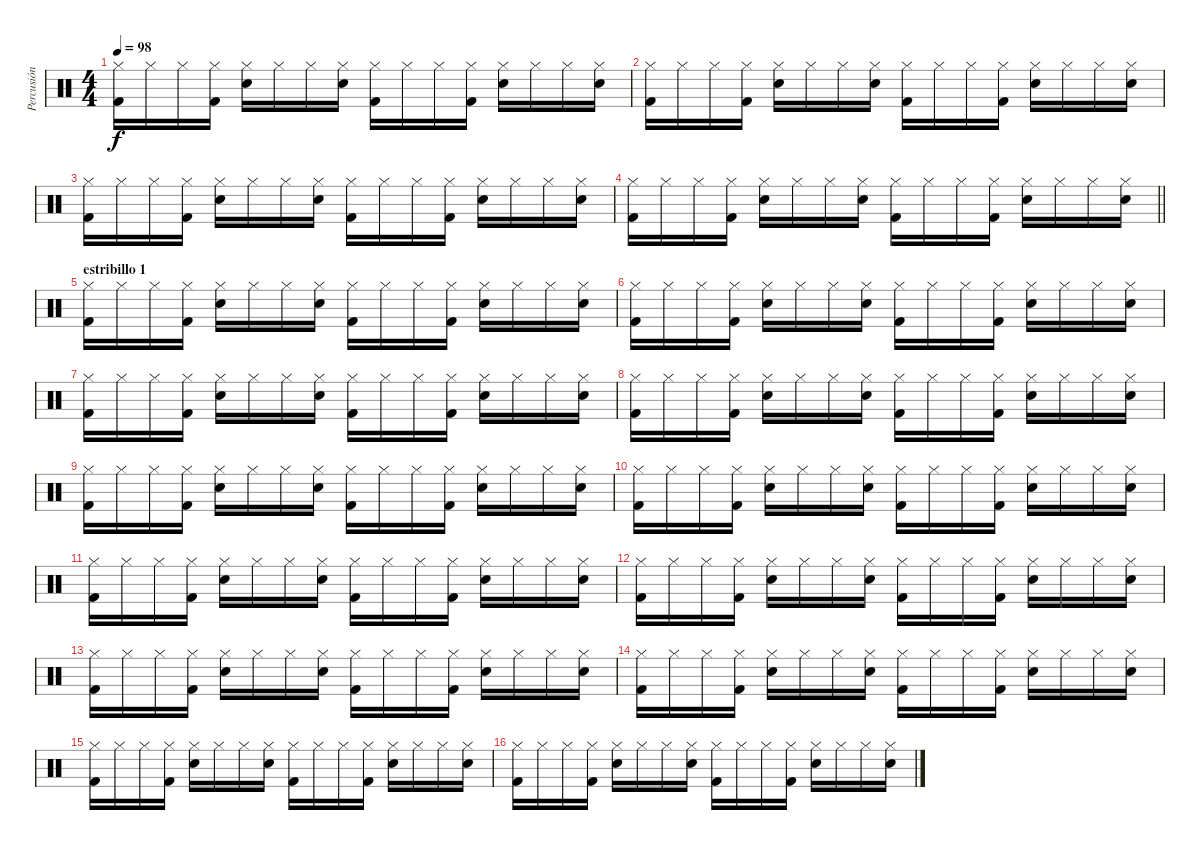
\track ("Percusión" "Percusión") {instrument percussion}
\staff {score}
\articulation defaults
\ts (4 4)
\tempo 98
\clef neutral
\ks c
("Hi-Hat (closed)" "Kick (hit) 2").16{dy f} "Hi-Hat (closed)".16 "Hi-Hat (closed)".16 ("Hi-Hat (closed)" "Kick (hit) 2").16 ("Hi-Hat (closed)" "Snare (hit) 2").16 "Hi-Hat (closed)".16 "Hi-Hat (closed)".16 ("Hi-Hat (closed)" "Snare (hit) 2").16 ("Hi-Hat (closed)" "Kick (hit) 2").16 "Hi-Hat (closed)".16 "Hi-Hat (closed)".16 ("Hi-Hat (closed)" "Kick (hit) 2").16 ("Hi-Hat (closed)" "Snare (hit) 2").16 "Hi-Hat (closed)".16 "Hi-Hat (closed)".16 ("Hi-Hat (closed)" "Snare (hit) 2").16 |
("Hi-Hat (closed)" "Kick (hit) 2").16 "Hi-Hat (closed)".16 "Hi-Hat (closed)".16 ("Hi-Hat (closed)" "Kick (hit) 2").16 ("Hi-Hat (closed)" "Snare (hit) 2").16 "Hi-Hat (closed)".16 "Hi-Hat (closed)".16 ("Hi-Hat (closed)" "Snare (hit) 2").16 ("Hi-Hat (closed)" "Kick (hit) 2").16 "Hi-Hat (closed)".16 "Hi-Hat (closed)".16 ("Hi-Hat (closed)" "Kick (hit) 2").16 ("Hi-Hat (closed)" "Snare (hit) 2").16 "Hi-Hat (closed)".16 "Hi-Hat (closed)".16 ("Hi-Hat (closed)" "Snare (hit) 2").16 |
("Hi-Hat (closed)" "Kick (hit) 2").16 "Hi-Hat (closed)".16 "Hi-Hat (closed)".16 ("Hi-Hat (closed)" "Kick (hit) 2").16 ("Hi-Hat (closed)" "Snare (hit) 2").16 "Hi-Hat (closed)".16 "Hi-Hat (closed)".16 ("Hi-Hat (closed)" "Snare (hit) 2").16 ("Hi-Hat (closed)" "Kick (hit) 2").16 "Hi-Hat (closed)".16 "Hi-Hat (closed)".16 ("Hi-Hat (closed)" "Kick (hit) 2").16 ("Hi-Hat (closed)" "Snare (hit) 2").16 "Hi-Hat (closed)".16 "Hi-Hat (closed)".16 ("Hi-Hat (closed)" "Snare (hit) 2").16 |
\barLineRight lightlight
("Hi-Hat (closed)" "Kick (hit) 2").16 "Hi-Hat (closed)".16 "Hi-Hat (closed)".16 ("Hi-Hat (closed)" "Kick (hit) 2").16 ("Hi-Hat (closed)" "Snare (hit) 2").16 "Hi-Hat (closed)".16 "Hi-Hat (closed)".16 ("Hi-Hat (closed)" "Snare (hit) 2").16 ("Hi-Hat (closed)" "Kick (hit) 2").16 "Hi-Hat (closed)".16 "Hi-Hat (closed)".16 ("Hi-Hat (closed)" "Kick (hit) 2").16 ("Hi-Hat (closed)" "Snare (hit) 2").16 "Hi-Hat (closed)".16 "Hi-Hat (closed)".16 ("Hi-Hat (closed)" "Snare (hit) 2").16 |
\section ("" "estribillo 1")
("Hi-Hat (closed)" "Kick (hit) 2").16 "Hi-Hat (closed)".16 "Hi-Hat (closed)".16 ("Hi-Hat (closed)" "Kick (hit) 2").16 ("Hi-Hat (closed)" "Snare (hit) 2").16 "Hi-Hat (closed)".16 "Hi-Hat (closed)".16 ("Hi-Hat (closed)" "Snare (hit) 2").16 ("Hi-Hat (closed)" "Kick (hit) 2").16 "Hi-Hat (closed)".16 "Hi-Hat (closed)".16 ("Hi-Hat (closed)" "Kick (hit) 2").16 ("Hi-Hat (closed)" "Snare (hit) 2").16 "Hi-Hat (closed)".16 "Hi-Hat (closed)".16 ("Hi-Hat (closed)" "Snare (hit) 2").16 |
("Hi-Hat (closed)" "Kick (hit) 2").16 "Hi-Hat (closed)".16 "Hi-Hat (closed)".16 ("Hi-Hat (closed)" "Kick (hit) 2").16 ("Hi-Hat (closed)" "Snare (hit) 2").16 "Hi-Hat (closed)".16 "Hi-Hat (closed)".16 ("Hi-Hat (closed)" "Snare (hit) 2").16 ("Hi-Hat (closed)" "Kick (hit) 2").16 "Hi-Hat (closed)".16 "Hi-Hat (closed)".16 ("Hi-Hat (closed)" "Kick (hit) 2").16 ("Hi-Hat (closed)" "Snare (hit) 2").16 "Hi-Hat (closed)".16 "Hi-Hat (closed)".16 ("Hi-Hat (closed)" "Snare (hit) 2").16 |
("Hi-Hat (closed)" "Kick (hit) 2").16 "Hi-Hat (closed)".16 "Hi-Hat (closed)".16 ("Hi-Hat (closed)" "Kick (hit) 2").16 ("Hi-Hat (closed)" "Snare (hit) 2").16 "Hi-Hat (closed)".16 "Hi-Hat (closed)".16 ("Hi-Hat (closed)" "Snare (hit) 2").16 ("Hi-Hat (closed)" "Kick (hit) 2").16 "Hi-Hat (closed)".16 "Hi-Hat (closed)".16 ("Hi-Hat (closed)" "Kick (hit) 2").16 ("Hi-Hat (closed)" "Snare (hit) 2").16 "Hi-Hat (closed)".16 "Hi-Hat (closed)".16 ("Hi-Hat (closed)" "Snare (hit) 2").16 |
("Hi-Hat (closed)" "Kick (hit) 2").16 "Hi-Hat (closed)".16 "Hi-Hat (closed)".16 ("Hi-Hat (closed)" "Kick (hit) 2").16 ("Hi-Hat (closed)" "Snare (hit) 2").16 "Hi-Hat (closed)".16 "Hi-Hat (closed)".16 ("Hi-Hat (closed)" "Snare (hit) 2").16 ("Hi-Hat (closed)" "Kick (hit) 2").16 "Hi-Hat (closed)".16 "Hi-Hat (closed)".16 ("Hi-Hat (closed)" "Kick (hit) 2").16 ("Hi-Hat (closed)" "Snare (hit) 2").16 "Hi-Hat (closed)".16 "Hi-Hat (closed)".16 ("Hi-Hat (closed)" "Snare (hit) 2").16 |
("Hi-Hat (closed)" "Kick (hit) 2").16 "Hi-Hat (closed)".16 "Hi-Hat (closed)".16 ("Hi-Hat (closed)" "Kick (hit) 2").16 ("Hi-Hat (closed)" "Snare (hit) 2").16 "Hi-Hat (closed)".16 "Hi-Hat (closed)".16 ("Hi-Hat (closed)" "Snare (hit) 2").16 ("Hi-Hat (closed)" "Kick (hit) 2").16 "Hi-Hat (closed)".16 "Hi-Hat (closed)".16 ("Hi-Hat (closed)" "Kick (hit) 2").16 ("Hi-Hat (closed)" "Snare (hit) 2").16 "Hi-Hat (closed)".16 "Hi-Hat (closed)".16 ("Hi-Hat (closed)" "Snare (hit) 2").16 |
("Hi-Hat (closed)" "Kick (hit) 2").16 "Hi-Hat (closed)".16 "Hi-Hat (closed)".16 ("Hi-Hat (closed)" "Kick (hit) 2").16 ("Hi-Hat (closed)" "Snare (hit) 2").16 "Hi-Hat (closed)".16 "Hi-Hat (closed)".16 ("Hi-Hat (closed)" "Snare (hit) 2").16 ("Hi-Hat (closed)" "Kick (hit) 2").16 "Hi-Hat (closed)".16 "Hi-Hat (closed)".16 ("Hi-Hat (closed)" "Kick (hit) 2").16 ("Hi-Hat (closed)" "Snare (hit) 2").16 "Hi-Hat (closed)".16 "Hi-Hat (closed)".16 ("Hi-Hat (closed)" "Snare (hit) 2").16 |
("Hi-Hat (closed)" "Kick (hit) 2").16 "Hi-Hat (closed)".16 "Hi-Hat (closed)".16 ("Hi-Hat (closed)" "Kick (hit) 2").16 ("Hi-Hat (closed)" "Snare (hit) 2").16 "Hi-Hat (closed)".16 "Hi-Hat (closed)".16 ("Hi-Hat (closed)" "Snare (hit) 2").16 ("Hi-Hat (closed)" "Kick (hit) 2").16 "Hi-Hat (closed)".16 "Hi-Hat (closed)".16 ("Hi-Hat (closed)" "Kick (hit) 2").16 ("Hi-Hat (closed)" "Snare (hit) 2").16 "Hi-Hat (closed)".16 "Hi-Hat (closed)".16 ("Hi-Hat (closed)" "Snare (hit) 2").16 |
("Hi-Hat (closed)" "Kick (hit) 2").16 "Hi-Hat (closed)".16 "Hi-Hat (closed)".16 ("Hi-Hat (closed)" "Kick (hit) 2").16 ("Hi-Hat (closed)" "Snare (hit) 2").16 "Hi-Hat (closed)".16 "Hi-Hat (closed)".16 ("Hi-Hat (closed)" "Snare (hit) 2").16 ("Hi-Hat (closed)" "Kick (hit) 2").16 "Hi-Hat (closed)".16 "Hi-Hat (closed)".16 ("Hi-Hat (closed)" "Kick (hit) 2").16 ("Hi-Hat (closed)" "Snare (hit) 2").16 "Hi-Hat (closed)".16 "Hi-Hat (closed)".16 ("Hi-Hat (closed)" "Snare (hit) 2").16 |
("Hi-Hat (closed)" "Kick (hit) 2").16 "Hi-Hat (closed)".16 "Hi-Hat (closed)".16 ("Hi-Hat (closed)" "Kick (hit) 2").16 ("Hi-Hat (closed)" "Snare (hit) 2").16 "Hi-Hat (closed)".16 "Hi-Hat (closed)".16 ("Hi-Hat (closed)" "Snare (hit) 2").16 ("Hi-Hat (closed)" "Kick (hit) 2").16 "Hi-Hat (closed)".16 "Hi-Hat (closed)".16 ("Hi-Hat (closed)" "Kick (hit) 2").16 ("Hi-Hat (closed)" "Snare (hit) 2").16 "Hi-Hat (closed)".16 "Hi-Hat (closed)".16 ("Hi-Hat (closed)" "Snare (hit) 2").16 |
("Hi-Hat (closed)" "Kick (hit) 2").16 "Hi-Hat (closed)".16 "Hi-Hat (closed)".16 ("Hi-Hat (closed)" "Kick (hit) 2").16 ("Hi-Hat (closed)" "Snare (hit) 2").16 "Hi-Hat (closed)".16 "Hi-Hat (closed)".16 ("Hi-Hat (closed)" "Snare (hit) 2").16 ("Hi-Hat (closed)" "Kick (hit) 2").16 "Hi-Hat (closed)".16 "Hi-Hat (closed)".16 ("Hi-Hat (closed)" "Kick (hit) 2").16 ("Hi-Hat (closed)" "Snare (hit) 2").16 "Hi-Hat (closed)".16 "Hi-Hat (closed)".16 ("Hi-Hat (closed)" "Snare (hit) 2").16 |
("Hi-Hat (closed)" "Kick (hit) 2").16 "Hi-Hat (closed)".16 "Hi-Hat (closed)".16 ("Hi-Hat (closed)" "Kick (hit) 2").16 ("Hi-Hat (closed)" "Snare (hit) 2").16 "Hi-Hat (closed)".16 "Hi-Hat (closed)".16 ("Hi-Hat (closed)" "Snare (hit) 2").16 ("Hi-Hat (closed)" "Kick (hit) 2").16 "Hi-Hat (closed)".16 "Hi-Hat (closed)".16 ("Hi-Hat (closed)" "Kick (hit) 2").16 ("Hi-Hat (closed)" "Snare (hit) 2").16 "Hi-Hat (closed)".16 "Hi-Hat (closed)".16 ("Hi-Hat (closed)" "Snare (hit) 2").16 |
("Hi-Hat (closed)" "Kick (hit) 2").16 "Hi-Hat (closed)".16 "Hi-Hat (closed)".16 ("Hi-Hat (closed)" "Kick (hit) 2").16 ("Hi-Hat (closed)" "Snare (hit) 2").16 "Hi-Hat (closed)".16 "Hi-Hat (closed)".16 ("Hi-Hat (closed)" "Snare (hit) 2").16 ("Hi-Hat (closed)" "Kick (hit) 2").16 "Hi-Hat (closed)".16 "Hi-Hat (closed)".16 ("Hi-Hat (closed)" "Kick (hit) 2").16 ("Hi-Hat (closed)" "Snare (hit) 2").16 "Hi-Hat (closed)".16 "Hi-Hat (closed)".16 ("Hi-Hat (closed)" "Snare (hit) 2").16
